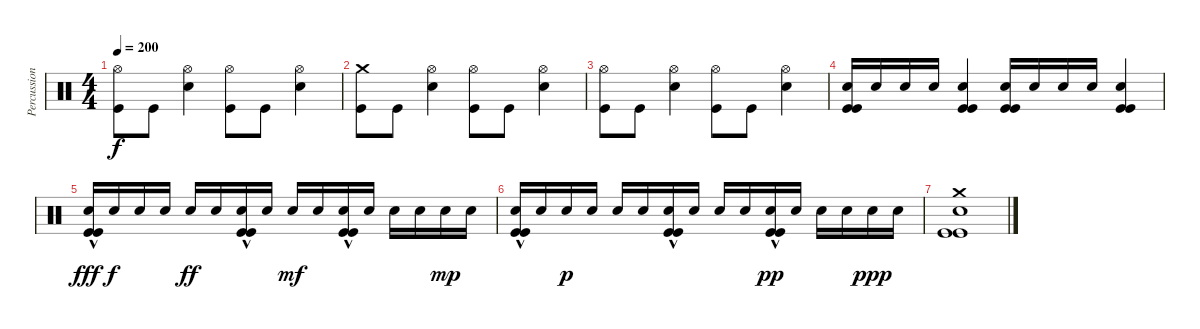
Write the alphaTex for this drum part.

\track ("Percussion" "Percussion") {instrument percussion}
\staff {score}
\articulation defaults
\ts (4 4)
\tempo 200
\clef neutral
\ks c
("Hi-Hat (open)" "Kick (hit)").8{dy f} "Kick (hit)".8 ("Hi-Hat (open)" "Snare (hit) 2").4 ("Hi-Hat (open)" "Kick (hit)").8 "Kick (hit)".8 ("Hi-Hat (open)" "Snare (hit) 2").4 |
("Crash medium (hit)" "Kick (hit)").8 "Kick (hit)".8 ("Hi-Hat (open)" "Snare (hit) 2").4 ("Hi-Hat (open)" "Kick (hit)").8 "Kick (hit)".8 ("Hi-Hat (open)" "Snare (hit) 2").4 |
("Hi-Hat (open)" "Kick (hit)").8 "Kick (hit)".8 ("Hi-Hat (open)" "Snare (hit) 2").4 ("Hi-Hat (open)" "Kick (hit)").8 "Kick (hit)".8 ("Hi-Hat (open)" "Snare (hit) 2").4 |
("Snare (hit) 2" "Kick (hit)" "Kick (hit)").16 "Snare (hit) 2".16 "Snare (hit) 2".16 "Snare (hit) 2".16 ("Snare (hit) 2" "Kick (hit)" "Kick (hit)").4 ("Snare (hit) 2" "Kick (hit)" "Kick (hit)").16 "Snare (hit) 2".16 "Snare (hit) 2".16 "Snare (hit) 2".16 ("Snare (hit) 2" "Kick (hit)" "Kick (hit)").4 |
("Snare (hit) 2"{hac} "Kick (hit)" "Kick (hit)").16{dy fff} "Snare (hit) 2".16{dy f} "Snare (hit) 2".16 "Snare (hit) 2".16 "Snare (hit) 2".16{dy ff} "Snare (hit) 2".16 ("Snare (hit) 2"{hac} "Kick (hit)" "Kick (hit)").16 "Snare (hit) 2".16 "Snare (hit) 2".16{dy mf} "Snare (hit) 2".16 ("Snare (hit) 2"{hac} "Kick (hit)" "Kick (hit)").16 "Snare (hit) 2".16 "Snare (hit) 2".16 "Snare (hit) 2".16 "Snare (hit) 2".16{dy mp} "Snare (hit) 2".16 |
("Snare (hit) 2"{hac} "Kick (hit)" "Kick (hit)").16 "Snare (hit) 2".16 "Snare (hit) 2".16{dy p} "Snare (hit) 2".16 "Snare (hit) 2".16 "Snare (hit) 2".16 ("Snare (hit) 2"{hac} "Kick (hit)" "Kick (hit)").16 "Snare (hit) 2".16 "Snare (hit) 2".16 "Snare (hit) 2".16 ("Snare (hit) 2"{hac} "Kick (hit)" "Kick (hit)").16{dy pp} "Snare (hit) 2".16 "Snare (hit) 2".16 "Snare (hit) 2".16 "Snare (hit) 2".16{dy ppp} "Snare (hit) 2".16 |
("Crash medium (hit)" "Snare (hit) 2" "Kick (hit)" "Kick (hit)").1
